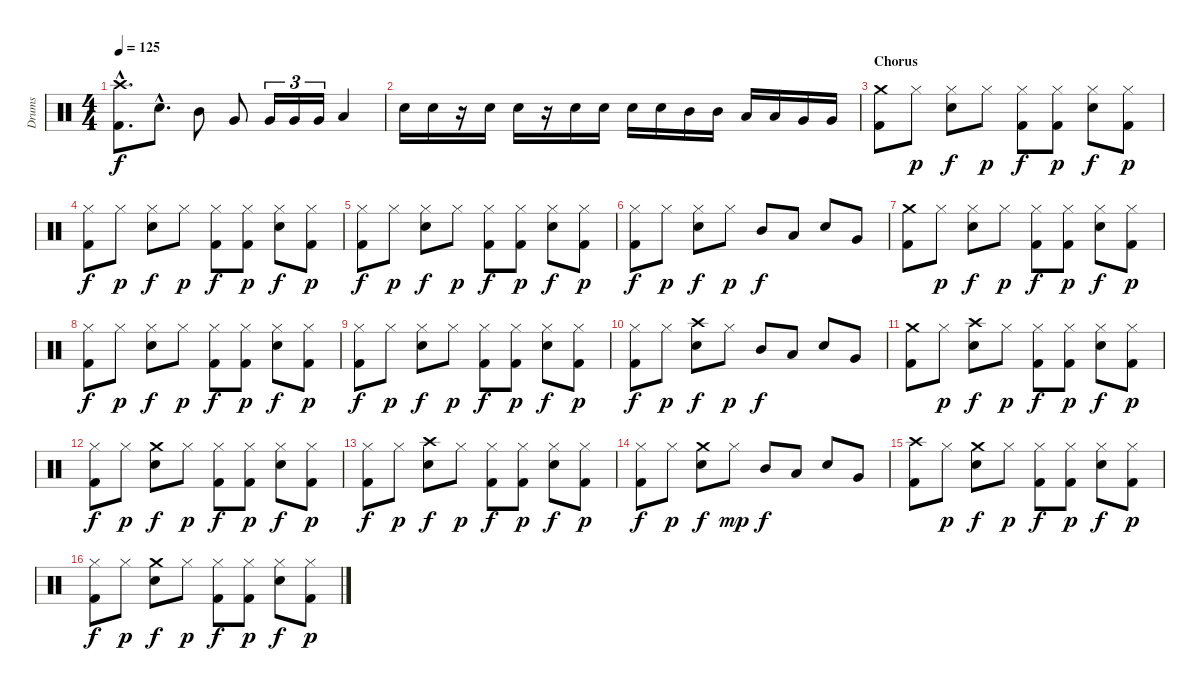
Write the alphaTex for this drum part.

\track ("Drums" "Drums") {instrument percussion}
\staff {score}
\articulation defaults
\ts (4 4)
\tempo 125
\clef neutral
\ks c
("Crash high (hit)"{hac} "Kick (hit) 2"{hac}).8{d dy f} "Snare (hit) 2"{hac}.8{d} "Mid Tom (hit)".8 "Very Low Tom (hit)".8 "Very Low Tom (hit)".16{tu (3 2)} "Very Low Tom (hit)".16{tu (3 2)} "Very Low Tom (hit)".16{tu (3 2)} "Low Floor Tom (hit)".4 |
"Snare (hit) 2".16 "Snare (hit) 2".16 r.16 "Snare (hit) 2".16 "Snare (hit) 2".16 r.16 "Snare (hit) 2".16 "Snare (hit) 2".16 "Snare (hit) 2".16 "Snare (hit) 2".16 "Mid Tom (hit)".16 "Mid Tom (hit)".16 "Low Tom (hit)".16 "Low Tom (hit)".16 "Very Low Tom (hit)".16 "Very Low Tom (hit)".16 |
\section ("" "Chorus")
("Crash medium (hit)" "Kick (hit) 2").8 "Hi-Hat (closed)".8{dy p} ("Hi-Hat (closed)" "Snare (hit) 2").8{dy f} "Hi-Hat (closed)".8{dy p} ("Hi-Hat (closed)" "Kick (hit) 2").8{dy f} ("Hi-Hat (closed)" "Kick (hit) 2").8{dy p} ("Hi-Hat (closed)" "Snare (hit) 2").8{dy f} ("Hi-Hat (closed)" "Kick (hit) 2").8{dy p} |
("Hi-Hat (closed)" "Kick (hit) 2").8{dy f} "Hi-Hat (closed)".8{dy p} ("Hi-Hat (closed)" "Snare (hit) 2").8{dy f} "Hi-Hat (closed)".8{dy p} ("Hi-Hat (closed)" "Kick (hit) 2").8{dy f} ("Hi-Hat (closed)" "Kick (hit) 2").8{dy p} ("Hi-Hat (closed)" "Snare (hit) 2").8{dy f} ("Hi-Hat (closed)" "Kick (hit) 2").8{dy p} |
("Hi-Hat (closed)" "Kick (hit) 2").8{dy f} "Hi-Hat (closed)".8{dy p} ("Hi-Hat (closed)" "Snare (hit) 2").8{dy f} "Hi-Hat (closed)".8{dy p} ("Hi-Hat (closed)" "Kick (hit) 2").8{dy f} ("Hi-Hat (closed)" "Kick (hit) 2").8{dy p} ("Hi-Hat (closed)" "Snare (hit) 2").8{dy f} ("Hi-Hat (closed)" "Kick (hit) 2").8{dy p} |
("Hi-Hat (closed)" "Kick (hit) 2").8{dy f} "Hi-Hat (closed)".8{dy p} ("Hi-Hat (closed)" "Snare (hit) 2").8{dy f} "Hi-Hat (closed)".8{dy p} "Mid Tom (hit)".8{dy f} "Low Tom (hit)".8 "Snare (hit) 2".8 "Very Low Tom (hit)".8 |
("Crash medium (hit)" "Kick (hit) 2").8 "Hi-Hat (closed)".8{dy p} ("Hi-Hat (closed)" "Snare (hit) 2").8{dy f} "Hi-Hat (closed)".8{dy p} ("Hi-Hat (closed)" "Kick (hit) 2").8{dy f} ("Hi-Hat (closed)" "Kick (hit) 2").8{dy p} ("Hi-Hat (closed)" "Snare (hit) 2").8{dy f} ("Hi-Hat (closed)" "Kick (hit) 2").8{dy p} |
("Hi-Hat (closed)" "Kick (hit) 2").8{dy f} "Hi-Hat (closed)".8{dy p} ("Hi-Hat (closed)" "Snare (hit) 2").8{dy f} "Hi-Hat (closed)".8{dy p} ("Hi-Hat (closed)" "Kick (hit) 2").8{dy f} ("Hi-Hat (closed)" "Kick (hit) 2").8{dy p} ("Hi-Hat (closed)" "Snare (hit) 2").8{dy f} ("Hi-Hat (closed)" "Kick (hit) 2").8{dy p} |
("Hi-Hat (closed)" "Kick (hit) 2").8{dy f} "Hi-Hat (closed)".8{dy p} ("Hi-Hat (closed)" "Snare (hit) 2").8{dy f} "Hi-Hat (closed)".8{dy p} ("Hi-Hat (closed)" "Kick (hit) 2").8{dy f} ("Hi-Hat (closed)" "Kick (hit) 2").8{dy p} ("Hi-Hat (closed)" "Snare (hit) 2").8{dy f} ("Hi-Hat (closed)" "Kick (hit) 2").8{dy p} |
("Hi-Hat (closed)" "Kick (hit) 2").8{dy f} "Hi-Hat (closed)".8{dy p} ("Crash high (hit)" "Snare (hit) 2").8{dy f} "Hi-Hat (closed)".8{dy p} "Mid Tom (hit)".8{dy f} "Low Tom (hit)".8 "Snare (hit) 2".8 "Very Low Tom (hit)".8 |
("Crash medium (hit)" "Kick (hit) 2").8 "Hi-Hat (closed)".8{dy p} ("Crash high (hit)" "Snare (hit) 2").8{dy f} "Hi-Hat (closed)".8{dy p} ("Hi-Hat (closed)" "Kick (hit) 2").8{dy f} ("Hi-Hat (closed)" "Kick (hit) 2").8{dy p} ("Hi-Hat (closed)" "Snare (hit) 2").8{dy f} ("Hi-Hat (closed)" "Kick (hit) 2").8{dy p} |
("Hi-Hat (closed)" "Kick (hit) 2").8{dy f} "Hi-Hat (closed)".8{dy p} ("Crash medium (hit)" "Snare (hit) 2").8{dy f} "Hi-Hat (closed)".8{dy p} ("Hi-Hat (closed)" "Kick (hit) 2").8{dy f} ("Hi-Hat (closed)" "Kick (hit) 2").8{dy p} ("Hi-Hat (closed)" "Snare (hit) 2").8{dy f} ("Hi-Hat (closed)" "Kick (hit) 2").8{dy p} |
("Hi-Hat (closed)" "Kick (hit) 2").8{dy f} "Hi-Hat (closed)".8{dy p} ("Crash high (hit)" "Snare (hit) 2").8{dy f} "Hi-Hat (closed)".8{dy p} ("Hi-Hat (closed)" "Kick (hit) 2").8{dy f} ("Hi-Hat (closed)" "Kick (hit) 2").8{dy p} ("Hi-Hat (closed)" "Snare (hit) 2").8{dy f} ("Hi-Hat (closed)" "Kick (hit) 2").8{dy p} |
("Hi-Hat (closed)" "Kick (hit) 2").8{dy f} "Hi-Hat (closed)".8{dy p} ("Crash medium (hit)" "Snare (hit) 2").8{dy f} "Hi-Hat (closed)".8{dy mp} "Mid Tom (hit)".8{dy f} "Low Tom (hit)".8 "Snare (hit) 2".8 "Very Low Tom (hit)".8 |
("Crash high (hit)" "Kick (hit) 2").8 "Hi-Hat (closed)".8{dy p} ("Crash medium (hit)" "Snare (hit) 2").8{dy f} "Hi-Hat (closed)".8{dy p} ("Hi-Hat (closed)" "Kick (hit) 2").8{dy f} ("Hi-Hat (closed)" "Kick (hit) 2").8{dy p} ("Hi-Hat (closed)" "Snare (hit) 2").8{dy f} ("Hi-Hat (closed)" "Kick (hit) 2").8{dy p} |
("Hi-Hat (closed)" "Kick (hit) 2").8{dy f} "Hi-Hat (closed)".8{dy p} ("Crash medium (hit)" "Snare (hit) 2").8{dy f} "Hi-Hat (closed)".8{dy p} ("Hi-Hat (closed)" "Kick (hit) 2").8{dy f} ("Hi-Hat (closed)" "Kick (hit) 2").8{dy p} ("Hi-Hat (closed)" "Snare (hit) 2").8{dy f} ("Hi-Hat (closed)" "Kick (hit) 2").8{dy p}
